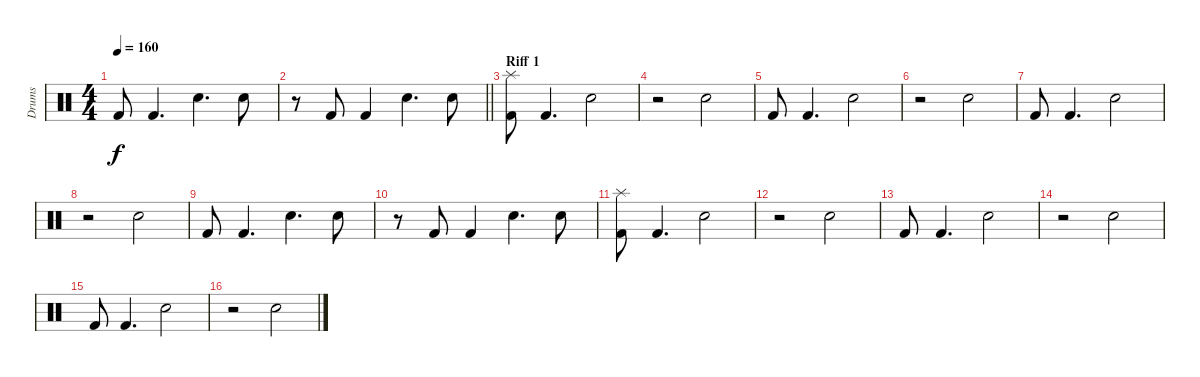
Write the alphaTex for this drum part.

\track ("Drums" "Drums") {instrument percussion}
\staff {score}
\articulation defaults
\ts (4 4)
\tempo 160
\clef neutral
\ks c "Kick (hit) 2".8{dy f} "Kick (hit) 2".4{d} "Snare (hit) 2".4{d} "Snare (hit) 2".8
|
\barLineRight lightlight
r.8 "Kick (hit) 2".8 "Kick (hit) 2".4 "Snare (hit) 2".4{d} "Snare (hit) 2".8 |
\section ("" "Riff 1")
("Kick (hit) 2" "Splash (hit)").8 "Kick (hit) 2".4{d} "Snare (hit) 2".2 |
r.2 "Snare (hit) 2".2 |
"Kick (hit) 2".8 "Kick (hit) 2".4{d} "Snare (hit) 2".2 |
r.2 "Snare (hit) 2".2 |
"Kick (hit) 2".8 "Kick (hit) 2".4{d} "Snare (hit) 2".2 |
r.2 "Snare (hit) 2".2 |
"Kick (hit) 2".8 "Kick (hit) 2".4{d} "Snare (hit) 2".4{d} "Snare (hit) 2".8 |
r.8 "Kick (hit) 2".8 "Kick (hit) 2".4 "Snare (hit) 2".4{d} "Snare (hit) 2".8 |
("Kick (hit) 2" "Splash (hit)").8 "Kick (hit) 2".4{d} "Snare (hit) 2".2 |
r.2 "Snare (hit) 2".2 |
"Kick (hit) 2".8 "Kick (hit) 2".4{d} "Snare (hit) 2".2 |
r.2 "Snare (hit) 2".2 |
"Kick (hit) 2".8 "Kick (hit) 2".4{d} "Snare (hit) 2".2 |
r.2 "Snare (hit) 2".2
